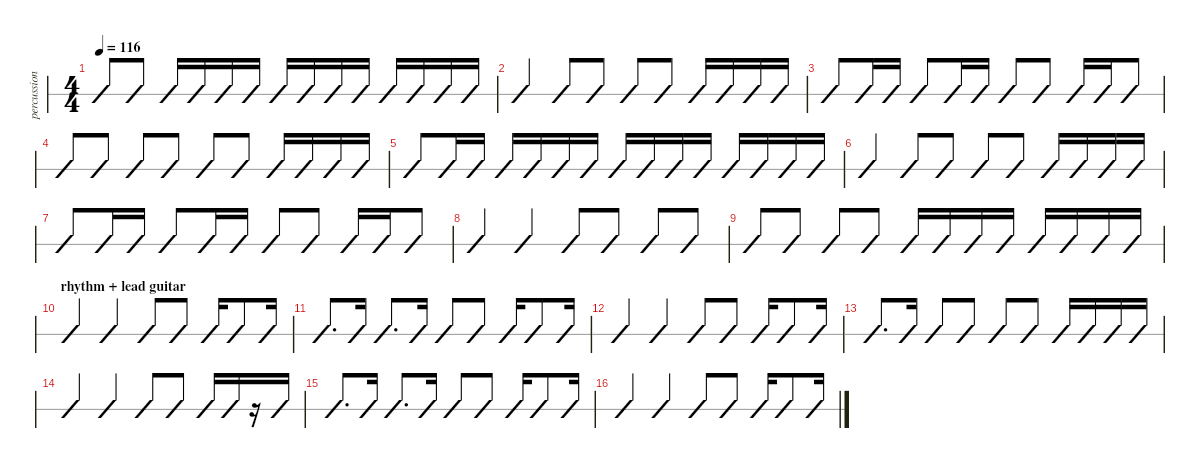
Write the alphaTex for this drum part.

\defaultSystemsLayout 4
\hideDynamics
\bracketExtendMode nobrackets
\track ("Drums" "percussion") {instrument percussion}
\staff {slash}
\articulation defaults
\voice
\ts (4 4)
\tempo 116
\clef neutral
\ks c "Hi-Hat (open)".8{dy f} "Kick (hit) 2".8
("Hi-Hat (open)" "Snare (hit) 2").16 "Kick (hit) 2".16 "Hi-Hat (closed)".16 "Kick (hit) 2".16 "Kick (hit) 2".16 "Very Low Tom (hit)".16 "Low Floor Tom (hit)".16 "Kick (hit) 2".16 "Snare (hit) 2".16 "Kick (hit) 2".16 "Snare (hit) 2".16 "Snare (hit) 2".16 |
("Crash medium (hit)" "Kick (hit) 2" "Crash high (hit)").4 ("Hi-Hat (closed)" "Snare (hit) 2").8 "Hi-Hat (closed)".8 "Hi-Hat (closed)".8 ("Hi-Hat (closed)" "Kick (hit) 2").8 ("Hi-Hat (closed)" "Snare (hit) 2").16 "Kick (hit) 2".16 "Hi-Hat (closed)".16 "Kick (hit) 2".16 |
("Hi-Hat (closed)" "Kick (hit) 2").8 "Hi-Hat (closed)".16 "Kick (hit) 2".16 ("Hi-Hat (closed)" "Snare (hit) 2").8 "Hi-Hat (closed)".16 "Snare (hit) 2".16 "Hi-Hat (closed)".8 ("Hi-Hat (closed)" "Kick (hit) 2").8 ("Hi-Hat (closed)" "Snare (hit) 2").16 "Kick (hit) 2".16 "Hi-Hat (closed)".8 |
("Crash high (hit)" "Kick (hit) 2").8 "Hi-Hat (closed)".8 ("Hi-Hat (closed)" "Snare (hit) 2").8 "Hi-Hat (closed)".8 "Hi-Hat (closed)".8 ("Hi-Hat (closed)" "Kick (hit) 2").8 ("Hi-Hat (closed)" "Snare (hit) 2").16 "Kick (hit) 2".16 "Hi-Hat (closed)".16 "Kick (hit) 2".16 |
("Hi-Hat (closed)" "Kick (hit) 2").8 "Hi-Hat (closed)".16 "Kick (hit) 2".16 ("Hi-Hat (closed)" "Snare (hit) 2").16 "Kick (hit) 2".16 "Kick (hit) 2".16 "Hi-Hat (closed)".16 "Hi-Hat (closed)".16 "Kick (hit) 2".16 "Kick (hit) 2".16 "Snare (hit) 2".16 "Snare (hit) 2".16 "Kick (hit) 2".16 "Snare (hit) 2".16 "Snare (hit) 2".16 |
("Crash medium (hit)" "Kick (hit) 2" "Crash high (hit)").4 ("Hi-Hat (closed)" "Snare (hit) 2").8 "Hi-Hat (closed)".8 "Hi-Hat (closed)".8 ("Hi-Hat (closed)" "Kick (hit) 2").8 ("Hi-Hat (closed)" "Snare (hit) 2").16 "Kick (hit) 2".16 "Hi-Hat (closed)".16 "Kick (hit) 2".16 |
("Hi-Hat (closed)" "Kick (hit) 2").8 "Hi-Hat (closed)".16 "Kick (hit) 2".16 ("Hi-Hat (closed)" "Snare (hit) 2").8 "Hi-Hat (closed)".16 "Snare (hit) 2".16 "Hi-Hat (closed)".8 ("Hi-Hat (closed)" "Kick (hit) 2").8 ("Hi-Hat (closed)" "Snare (hit) 2").16 "Kick (hit) 2".16 "Hi-Hat (closed)".8 |
("Crash high (hit)" "Kick (hit) 2").4 ("Hi-Hat (open)" "Snare (hit) 2").4 ("Hi-Hat (open)" "Kick (hit) 2").8 "Kick (hit) 2".8 ("Hi-Hat (open)" "Snare (hit) 2").8 ("Crash medium (hit)" "Kick (hit) 2").8 |
"Hi-Hat (open)".8 "Kick (hit) 2".8 ("Hi-Hat (open)" "Snare (hit) 2").8 "Kick (hit) 2".8 "Snare (hit) 2".16 "Kick (hit) 2".16 "Snare (hit) 2".16 "Snare (hit) 2".16 "Snare (hit) 2".16 "Kick (hit) 2".16 "Snare (hit) 2".16 "Snare (hit) 2".16 |
\section ("" "rhythm + lead guitar")
("Crash medium (hit)" "Kick (hit) 2" "Crash high (hit)").4 ("Crash medium (hit)" "Snare (hit) 2").4 "Crash medium (hit)".8 "Kick (hit) 2".8 ("Crash medium (hit)" "Snare (hit) 2").16 "Kick (hit) 2".8 "Kick (hit) 2".16 |
("Crash medium (hit)" "Kick (hit) 2").8{d} "Kick (hit) 2".16 ("Crash medium (hit)" "Snare (hit) 2").8{d} "Snare (hit) 2".16 "Crash medium (hit)".8 "Kick (hit) 2".8 ("Crash medium (hit)" "Snare (hit) 2").16 "Kick (hit) 2".8 "Kick (hit) 2".16 |
("Crash medium (hit)" "Kick (hit) 2" "Crash high (hit)").4 ("Crash medium (hit)" "Snare (hit) 2").4 "Crash medium (hit)".8 "Kick (hit) 2".8 ("Crash medium (hit)" "Snare (hit) 2").16 "Kick (hit) 2".8 "Kick (hit) 2".16 |
("Crash medium (hit)" "Kick (hit) 2").8{d} "Kick (hit) 2".16 ("Crash medium (hit)" "Snare (hit) 2").8 ("Crash high (hit)" "Kick (hit) 2").8 "Crash medium (hit)".8 "Kick (hit) 2".8 ("Crash medium (hit)" "Snare (hit) 2").16 "Kick (hit) 2".16 "Snare (hit) 2".16 "Snare (hit) 2".16 |
("Crash medium (hit)" "Kick (hit) 2").4 ("Crash medium (hit)" "Snare (hit) 2").4 "Crash medium (hit)".8 "Kick (hit) 2".8 ("Crash medium (hit)" "Snare (hit) 2").16 "Kick (hit) 2".16 r.16 "Kick (hit) 2".16 |
("Crash medium (hit)" "Kick (hit) 2").8{d} "Kick (hit) 2".16 ("Crash medium (hit)" "Snare (hit) 2").8{d} "Snare (hit) 2".16 "Crash medium (hit)".8 "Kick (hit) 2".8 ("Crash medium (hit)" "Snare (hit) 2").16 "Kick (hit) 2".8 "Kick (hit) 2".16 |
("Crash medium (hit)" "Kick (hit) 2").4 ("Crash medium (hit)" "Snare (hit) 2").4 "Crash medium (hit)".8 "Kick (hit) 2".8 ("Crash medium (hit)" "Snare (hit) 2").16 "Kick (hit) 2".8 "Kick (hit) 2".16
\voice
\clef neutral
\ottava regular
\simile none
\ks c
r.4{dy mf} r.4 r.4 r.4 |
r.4 r.4 r.4 r.4 |
r.4 r.4 r.4 r.4 |
r.4 r.4 r.4 r.4 |
r.4 r.4 r.4 r.4 |
r.4 r.4 r.4 r.4 |
r.4 r.4 r.4 r.4 |
r.4 r.4 r.4 r.4 |
r.4 r.4 r.4 r.4 |
r.4 r.4 r.4 r.4 |
r.4 r.4 r.4 r.4 |
r.4 r.4 r.4 r.4 |
r.4 r.4 r.4 r.4 |
r.4 r.4 r.4 r.4 |
r.4 r.4 r.4 r.4 |
r.4 r.4 r.4 r.4
